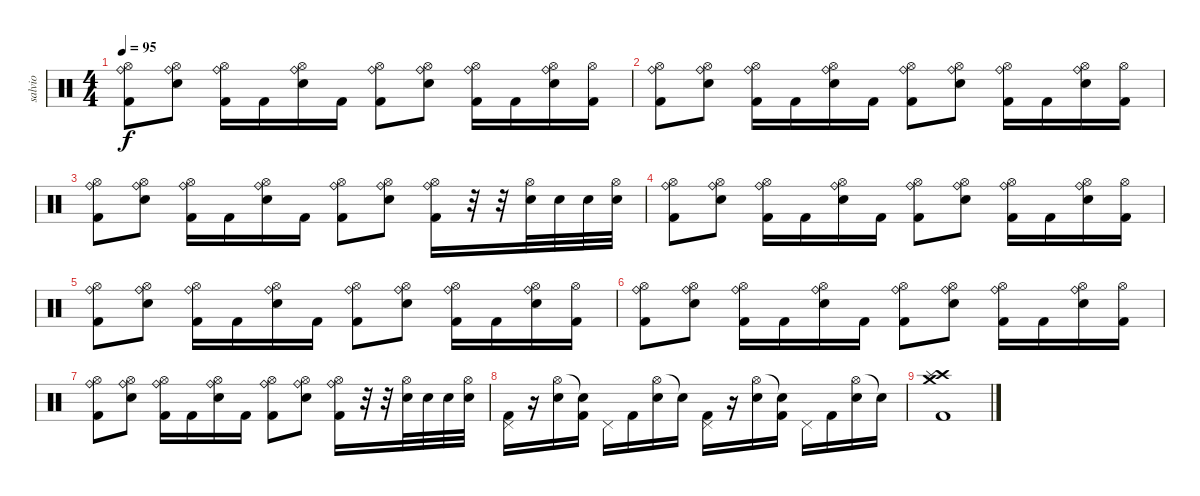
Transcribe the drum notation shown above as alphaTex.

\track ("salvio" "salvio") {instrument percussion}
\staff {score}
\articulation defaults
\ts (4 4)
\tempo 95
\clef neutral
\ks c
("Ride (bell)" "Kick (hit) 2" "Hi-Hat (open)").8{dy f} ("Ride (bell)" "Snare (hit) 2" "Hi-Hat (open)").8 ("Ride (bell)" "Kick (hit) 2" "Hi-Hat (open)").16 "Kick (hit) 2".16 ("Ride (bell)" "Snare (hit) 2" "Hi-Hat (open)").16 "Kick (hit) 2".16 ("Ride (bell)" "Kick (hit) 2" "Hi-Hat (open)").8 ("Ride (bell)" "Snare (hit) 2" "Hi-Hat (open)").8 ("Ride (bell)" "Kick (hit) 2" "Hi-Hat (open)").16 "Kick (hit) 2".16 ("Ride (bell)" "Snare (hit) 2" "Hi-Hat (open)").16 ("Hi-Hat (open)" "Kick (hit) 2").16 |
("Ride (bell)" "Kick (hit) 2" "Hi-Hat (open)").8 ("Ride (bell)" "Snare (hit) 2" "Hi-Hat (open)").8 ("Ride (bell)" "Kick (hit) 2" "Hi-Hat (open)").16 "Kick (hit) 2".16 ("Ride (bell)" "Snare (hit) 2" "Hi-Hat (open)").16 "Kick (hit) 2".16 ("Ride (bell)" "Kick (hit) 2" "Hi-Hat (open)").8 ("Ride (bell)" "Snare (hit) 2" "Hi-Hat (open)").8 ("Ride (bell)" "Kick (hit) 2" "Hi-Hat (open)").16 "Kick (hit) 2".16 ("Ride (bell)" "Snare (hit) 2" "Hi-Hat (open)").16 ("Hi-Hat (open)" "Kick (hit) 2").16 |
("Ride (bell)" "Kick (hit) 2" "Hi-Hat (open)").8 ("Ride (bell)" "Snare (hit) 2" "Hi-Hat (open)").8 ("Ride (bell)" "Kick (hit) 2" "Hi-Hat (open)").16 "Kick (hit) 2".16 ("Ride (bell)" "Snare (hit) 2" "Hi-Hat (open)").16 "Kick (hit) 2".16 ("Ride (bell)" "Kick (hit) 2" "Hi-Hat (open)").8 ("Ride (bell)" "Snare (hit) 2" "Hi-Hat (open)").8 ("Ride (bell)" "Kick (hit) 2" "Hi-Hat (open)").16 r.32 r.32 ("Hi-Hat (open)" "Snare (hit) 2").32 "Snare (hit) 2".32 "Snare (hit) 2".32 ("Hi-Hat (open)" "Snare (hit) 2").32 |
("Ride (bell)" "Kick (hit) 2" "Hi-Hat (open)").8 ("Ride (bell)" "Snare (hit) 2" "Hi-Hat (open)").8 ("Ride (bell)" "Kick (hit) 2" "Hi-Hat (open)").16 "Kick (hit) 2".16 ("Ride (bell)" "Snare (hit) 2" "Hi-Hat (open)").16 "Kick (hit) 2".16 ("Ride (bell)" "Kick (hit) 2" "Hi-Hat (open)").8 ("Ride (bell)" "Snare (hit) 2" "Hi-Hat (open)").8 ("Ride (bell)" "Kick (hit) 2" "Hi-Hat (open)").16 "Kick (hit) 2".16 ("Ride (bell)" "Snare (hit) 2" "Hi-Hat (open)").16 ("Hi-Hat (open)" "Kick (hit) 2").16 |
("Ride (bell)" "Kick (hit) 2" "Hi-Hat (open)").8 ("Ride (bell)" "Snare (hit) 2" "Hi-Hat (open)").8 ("Ride (bell)" "Kick (hit) 2" "Hi-Hat (open)").16 "Kick (hit) 2".16 ("Ride (bell)" "Snare (hit) 2" "Hi-Hat (open)").16 "Kick (hit) 2".16 ("Ride (bell)" "Kick (hit) 2" "Hi-Hat (open)").8 ("Ride (bell)" "Snare (hit) 2" "Hi-Hat (open)").8 ("Ride (bell)" "Kick (hit) 2" "Hi-Hat (open)").16 "Kick (hit) 2".16 ("Ride (bell)" "Snare (hit) 2" "Hi-Hat (open)").16 ("Hi-Hat (open)" "Kick (hit) 2").16 |
("Ride (bell)" "Kick (hit) 2" "Hi-Hat (open)").8 ("Ride (bell)" "Snare (hit) 2" "Hi-Hat (open)").8 ("Ride (bell)" "Kick (hit) 2" "Hi-Hat (open)").16 "Kick (hit) 2".16 ("Ride (bell)" "Snare (hit) 2" "Hi-Hat (open)").16 "Kick (hit) 2".16 ("Ride (bell)" "Kick (hit) 2" "Hi-Hat (open)").8 ("Ride (bell)" "Snare (hit) 2" "Hi-Hat (open)").8 ("Ride (bell)" "Kick (hit) 2" "Hi-Hat (open)").16 "Kick (hit) 2".16 ("Ride (bell)" "Snare (hit) 2" "Hi-Hat (open)").16 ("Hi-Hat (open)" "Kick (hit) 2").16 |
("Ride (bell)" "Kick (hit) 2" "Hi-Hat (open)").8 ("Ride (bell)" "Snare (hit) 2" "Hi-Hat (open)").8 ("Ride (bell)" "Kick (hit) 2" "Hi-Hat (open)").16 "Kick (hit) 2".16 ("Ride (bell)" "Snare (hit) 2" "Hi-Hat (open)").16 "Kick (hit) 2".16 ("Ride (bell)" "Kick (hit) 2" "Hi-Hat (open)").8 ("Ride (bell)" "Snare (hit) 2" "Hi-Hat (open)").8 ("Ride (bell)" "Kick (hit) 2" "Hi-Hat (open)").16 r.32 r.32 ("Hi-Hat (open)" "Snare (hit) 2").32 "Snare (hit) 2".32 "Snare (hit) 2".32 ("Hi-Hat (open)" "Snare (hit) 2").32 |
("Pedal Hi-Hat (hit)" "Kick (hit) 2").16 r.16 ("Hi-Hat (open)" "Snare (hit) 2").16 ("Snare (hit)"{t} "Kick (hit) 2").16 "Pedal Hi-Hat (hit)".16 "Kick (hit) 2".16 ("Hi-Hat (open)" "Snare (hit) 2").16 "Snare (hit)"{t}.16 ("Pedal Hi-Hat (hit)" "Kick (hit) 2").16 r.16 ("Hi-Hat (open)" "Snare (hit) 2").16 ("Snare (hit)"{t} "Kick (hit) 2").16 "Pedal Hi-Hat (hit)".16 "Kick (hit) 2".16 ("Hi-Hat (open)" "Snare (hit) 2").16 "Snare (hit)"{t}.16 |
("Crash medium (hit)" "Crash high (hit)" "Kick (hit) 2" "Splash (hit)").1
